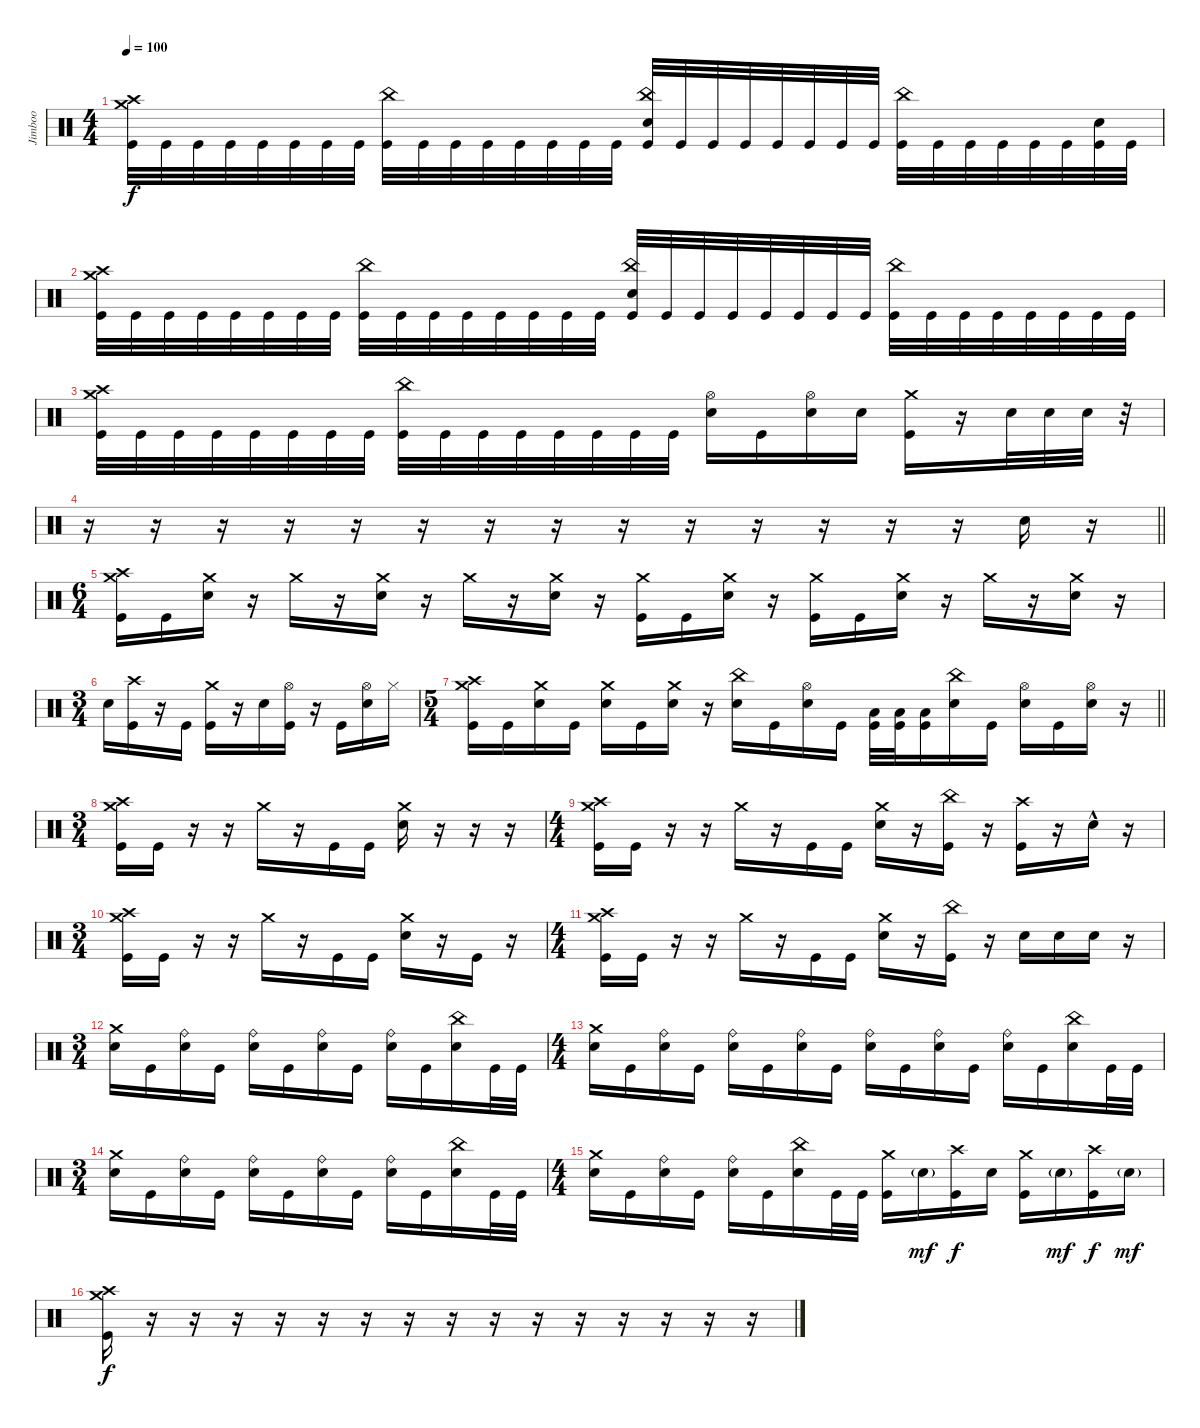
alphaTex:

\track ("Jimboo" "Jimboo") {instrument percussion}
\staff
\articulation defaults
\ts (4 4)
\tempo 100
\clef neutral
\ks c
("Kick (hit)" "Crash medium (hit)" "Crash high (hit)").32{dy f} "Kick (hit)".32 "Kick (hit)".32 "Kick (hit)".32 "Kick (hit)".32 "Kick (hit)".32 "Kick (hit)".32 "Kick (hit)".32 ("Kick (hit)" "China (hit)").32 "Kick (hit)".32 "Kick (hit)".32 "Kick (hit)".32 "Kick (hit)".32 "Kick (hit)".32 "Kick (hit)".32 "Kick (hit)".32 ("Kick (hit)" "China (hit)" "Snare (hit) 2").32 "Kick (hit)".32 "Kick (hit)".32 "Kick (hit)".32 "Kick (hit)".32 "Kick (hit)".32 "Kick (hit)".32 "Kick (hit)".32 ("Kick (hit)" "China (hit)").32 "Kick (hit)".32 "Kick (hit)".32 "Kick (hit)".32 "Kick (hit)".32 "Kick (hit)".32 ("Kick (hit)" "Snare (hit) 2").32 "Kick (hit)".32 |
("Kick (hit)" "Crash medium (hit)" "Crash high (hit)").32 "Kick (hit)".32 "Kick (hit)".32 "Kick (hit)".32 "Kick (hit)".32 "Kick (hit)".32 "Kick (hit)".32 "Kick (hit)".32 ("Kick (hit)" "China (hit)").32 "Kick (hit)".32 "Kick (hit)".32 "Kick (hit)".32 "Kick (hit)".32 "Kick (hit)".32 "Kick (hit)".32 "Kick (hit)".32 ("Kick (hit)" "China (hit)" "Snare (hit) 2").32 "Kick (hit)".32 "Kick (hit)".32 "Kick (hit)".32 "Kick (hit)".32 "Kick (hit)".32 "Kick (hit)".32 "Kick (hit)".32 ("Kick (hit)" "China (hit)").32 "Kick (hit)".32 "Kick (hit)".32 "Kick (hit)".32 "Kick (hit)".32 "Kick (hit)".32 "Kick (hit)".32 "Kick (hit)".32 |
("Kick (hit)" "Crash medium (hit)" "Crash high (hit)").32 "Kick (hit)".32 "Kick (hit)".32 "Kick (hit)".32 "Kick (hit)".32 "Kick (hit)".32 "Kick (hit)".32 "Kick (hit)".32 ("Kick (hit)" "China (hit)").32 "Kick (hit)".32 "Kick (hit)".32 "Kick (hit)".32 "Kick (hit)".32 "Kick (hit)".32 "Kick (hit)".32 "Kick (hit)".32 ("Snare (hit) 2" "Hi-Hat (open)").16 "Kick (hit)".16 ("Snare (hit) 2" "Hi-Hat (open)").16 "Snare (hit) 2".16 ("Kick (hit)" "Crash medium (hit)").16 r.16 "Snare (hit) 2".32 "Snare (hit) 2".32 "Snare (hit) 2".32 r.32 |
\barLineRight lightlight
r.16 r.16 r.16 r.16 r.16 r.16 r.16 r.16 r.16 r.16 r.16 r.16 r.16 r.16 "Snare (hit) 2".16 r.16 |
\ts (6 4)
("Crash medium (hit)" "Crash high (hit)" "Kick (hit)").16 "Kick (hit)".16 ("Snare (hit) 2" "Crash medium (hit)").16 r.16 "Crash medium (hit)".16 r.16 ("Snare (hit) 2" "Crash medium (hit)").16 r.16 "Crash medium (hit)".16 r.16 ("Snare (hit) 2" "Crash medium (hit)").16 r.16 ("Crash medium (hit)" "Kick (hit)").16 "Kick (hit)".16 ("Snare (hit) 2" "Crash medium (hit)").16 r.16 ("Crash medium (hit)" "Kick (hit)").16 "Kick (hit)".16 ("Snare (hit) 2" "Crash medium (hit)").16 r.16 "Crash medium (hit)".16 r.16 ("Snare (hit) 2" "Crash medium (hit)").16 r.16 |
\ts (3 4)
"Snare (hit) 2".16 ("Kick (hit)" "Crash high (hit)").16 r.16 "Kick (hit)".16 ("Kick (hit)" "Crash medium (hit)").16 r.16 "Snare (hit) 2".16 ("Kick (hit)" "Hi-Hat (open)").16 r.16 "Kick (hit)".16 ("Snare (hit) 2" "Hi-Hat (open)").16 "Hi-Hat (closed)".16 |
\ts (5 4)
\barLineRight lightlight
("Crash medium (hit)" "Crash high (hit)" "Kick (hit)").16 "Kick (hit)".16 ("Snare (hit) 2" "Crash medium (hit)").16 "Kick (hit)".16 ("Snare (hit) 2" "Crash medium (hit)").16 "Kick (hit)".16 ("Snare (hit) 2" "Crash medium (hit)").16 r.16 ("Snare (hit) 2" "China (hit)").16 "Kick (hit)".16 ("Snare (hit) 2" "Hi-Hat (open)").16 "Kick (hit)".16 ("Kick (hit)" "Low Tom (hit)").32 ("Kick (hit)" "Low Tom (hit)").32 ("Kick (hit)" "Low Floor Tom (hit)").16 ("Snare (hit) 2" "China (hit)").16 "Kick (hit)".16 ("Snare (hit) 2" "Hi-Hat (open)").16 "Kick (hit)".16 ("Snare (hit) 2" "Hi-Hat (open)").16 r.16 |
\ts (3 4)
\section ("" "")
("Kick (hit)" "Crash medium (hit)" "Crash high (hit)").16 "Kick (hit)".16 r.16 r.16 "Crash medium (hit)".16 r.16 "Kick (hit)".16 "Kick (hit)".16 ("Snare (hit) 2" "Crash medium (hit)").16 r.16 r.16 r.16 |
\ts (4 4)
("Kick (hit)" "Crash medium (hit)" "Crash high (hit)").16 "Kick (hit)".16 r.16 r.16 "Crash medium (hit)".16 r.16 "Kick (hit)".16 "Kick (hit)".16 ("Snare (hit) 2" "Crash medium (hit)").16 r.16 ("Kick (hit)" "China (hit)").16 r.16 ("Kick (hit)" "Crash high (hit)").16 r.16 "Snare (hit) 2"{hac}.16 r.16 |
\ts (3 4)
("Kick (hit)" "Crash medium (hit)" "Crash high (hit)").16 "Kick (hit)".16 r.16 r.16 "Crash medium (hit)".16 r.16 "Kick (hit)".16 "Kick (hit)".16 ("Snare (hit) 2" "Crash medium (hit)").16 r.16 "Kick (hit)".16 r.16 |
\ts (4 4)
("Kick (hit)" "Crash medium (hit)" "Crash high (hit)").16 "Kick (hit)".16 r.16 r.16 "Crash medium (hit)".16 r.16 "Kick (hit)".16 "Kick (hit)".16 ("Snare (hit) 2" "Crash medium (hit)").16 r.16 ("Kick (hit)" "China (hit)").16 r.16 "Snare (hit) 2".16 "Snare (hit) 2".16 "Snare (hit) 2".16 r.16 |
\ts (3 4)
("Snare (hit) 2" "Crash medium (hit)").16 "Kick (hit)".16 ("Snare (hit) 2" "Ride (bell)").16 "Kick (hit)".16 ("Snare (hit) 2" "Ride (bell)").16 "Kick (hit)".16 ("Snare (hit) 2" "Ride (bell)").16 "Kick (hit)".16 ("Snare (hit) 2" "Ride (bell)").16 "Kick (hit)".16 ("Snare (hit) 2" "China (hit)").16 "Kick (hit)".32 "Kick (hit)".32 |
\ts (4 4)
("Snare (hit) 2" "Crash medium (hit)").16 "Kick (hit)".16 ("Snare (hit) 2" "Ride (bell)").16 "Kick (hit)".16 ("Snare (hit) 2" "Ride (bell)").16 "Kick (hit)".16 ("Snare (hit) 2" "Ride (bell)").16 "Kick (hit)".16 ("Snare (hit) 2" "Ride (bell)").16 "Kick (hit)".16 ("Snare (hit) 2" "Ride (bell)").16 "Kick (hit)".16 ("Snare (hit) 2" "Ride (bell)").16 "Kick (hit)".16 ("Snare (hit) 2" "China (hit)").16 "Kick (hit)".32 "Kick (hit)".32 |
\ts (3 4)
("Snare (hit) 2" "Crash medium (hit)").16 "Kick (hit)".16 ("Snare (hit) 2" "Ride (bell)").16 "Kick (hit)".16 ("Snare (hit) 2" "Ride (bell)").16 "Kick (hit)".16 ("Snare (hit) 2" "Ride (bell)").16 "Kick (hit)".16 ("Snare (hit) 2" "Ride (bell)").16 "Kick (hit)".16 ("Snare (hit) 2" "China (hit)").16 "Kick (hit)".32 "Kick (hit)".32 |
\ts (4 4)
("Snare (hit) 2" "Crash medium (hit)").16 "Kick (hit)".16 ("Snare (hit) 2" "Ride (bell)").16 "Kick (hit)".16 ("Snare (hit) 2" "Ride (bell)").16 "Kick (hit)".16 ("Snare (hit) 2" "China (hit)").16 "Kick (hit)".32 "Kick (hit)".32 ("Kick (hit)" "Crash medium (hit)").16 "Snare (hit) 2"{g}.16{dy mf} ("Kick (hit)" "Crash high (hit)").16{dy f} "Snare (hit) 2".16 ("Kick (hit)" "Crash medium (hit)").16 "Snare (hit) 2"{g}.16{dy mf} ("Kick (hit)" "Crash high (hit)").16{dy f} "Snare (hit) 2"{g}.16{dy mf} |
("Kick (hit)" "Crash medium (hit)" "Crash high (hit)").16{dy f} r.16 r.16 r.16 r.16 r.16 r.16 r.16 r.16 r.16 r.16 r.16 r.16 r.16 r.16 r.16
